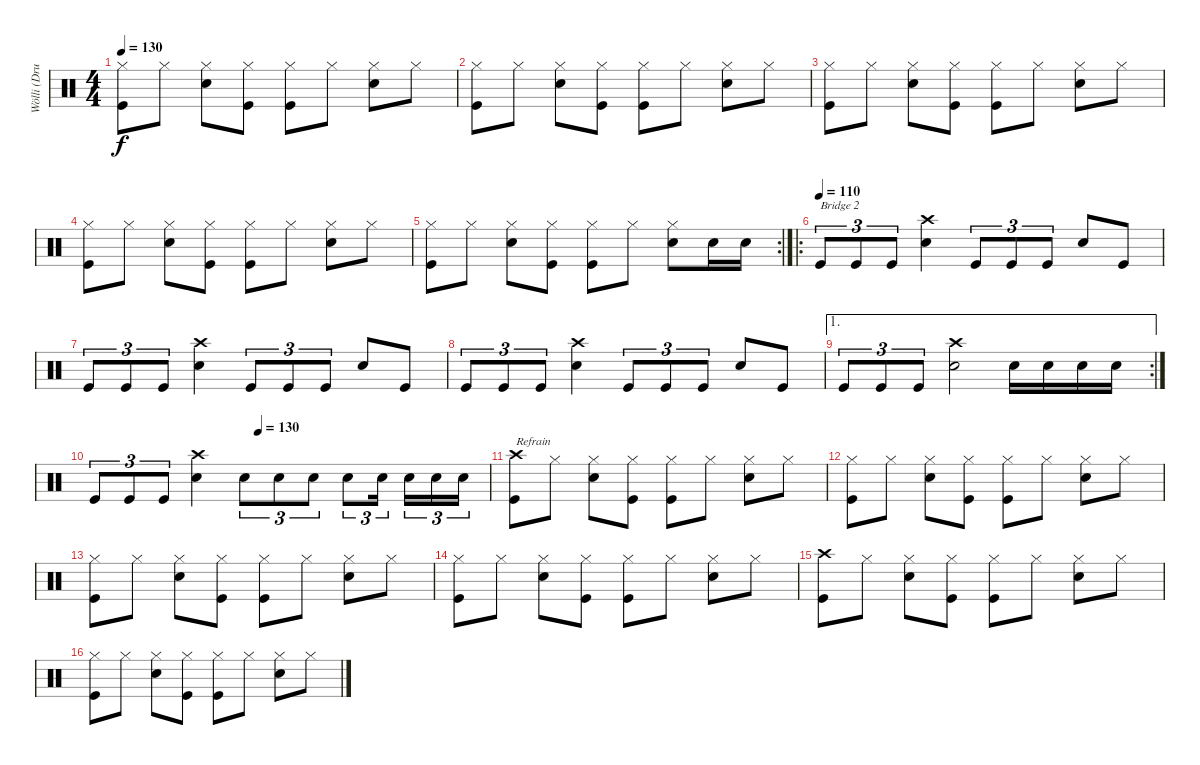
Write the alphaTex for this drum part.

\track ("Wölli (Drums)" "Wölli (Dru") {instrument percussion}
\staff {score}
\articulation defaults
\ts (4 4)
\tempo 130
\clef neutral
\ks c
("Hi-Hat (closed)" "Kick (hit)").8{dy f} "Hi-Hat (closed)".8 ("Hi-Hat (closed)" "Snare (hit) 2").8 ("Hi-Hat (closed)" "Kick (hit)").8 ("Hi-Hat (closed)" "Kick (hit)").8 "Hi-Hat (closed)".8 ("Hi-Hat (closed)" "Snare (hit) 2").8 "Hi-Hat (closed)".8 |
("Hi-Hat (closed)" "Kick (hit)").8 "Hi-Hat (closed)".8 ("Hi-Hat (closed)" "Snare (hit) 2").8 ("Hi-Hat (closed)" "Kick (hit)").8 ("Hi-Hat (closed)" "Kick (hit)").8 "Hi-Hat (closed)".8 ("Hi-Hat (closed)" "Snare (hit) 2").8 "Hi-Hat (closed)".8 |
("Hi-Hat (closed)" "Kick (hit)").8 "Hi-Hat (closed)".8 ("Hi-Hat (closed)" "Snare (hit) 2").8 ("Hi-Hat (closed)" "Kick (hit)").8 ("Hi-Hat (closed)" "Kick (hit)").8 "Hi-Hat (closed)".8 ("Hi-Hat (closed)" "Snare (hit) 2").8 "Hi-Hat (closed)".8 |
("Hi-Hat (closed)" "Kick (hit)").8 "Hi-Hat (closed)".8 ("Hi-Hat (closed)" "Snare (hit) 2").8 ("Hi-Hat (closed)" "Kick (hit)").8 ("Hi-Hat (closed)" "Kick (hit)").8 "Hi-Hat (closed)".8 ("Hi-Hat (closed)" "Snare (hit) 2").8 "Hi-Hat (closed)".8 |
\rc 2
("Hi-Hat (closed)" "Kick (hit)").8 "Hi-Hat (closed)".8 ("Hi-Hat (closed)" "Snare (hit) 2").8 ("Hi-Hat (closed)" "Kick (hit)").8 ("Hi-Hat (closed)" "Kick (hit)").8 "Hi-Hat (closed)".8 ("Hi-Hat (closed)" "Snare (hit) 2").8 "Snare (hit) 2".16 "Snare (hit) 2".16 |
\ro
\tempo (110)
"Kick (hit)".8{tu (3 2) txt "Bridge 2"} "Kick (hit)".8{tu (3 2)} "Kick (hit)".8{tu (3 2)} ("Crash high (hit)" "Snare (hit) 2").4 "Kick (hit)".8{tu (3 2)} "Kick (hit)".8{tu (3 2)} "Kick (hit)".8{tu (3 2)} "Snare (hit) 2".8 "Kick (hit)".8 |
"Kick (hit)".8{tu (3 2)} "Kick (hit)".8{tu (3 2)} "Kick (hit)".8{tu (3 2)} ("Crash high (hit)" "Snare (hit) 2").4 "Kick (hit)".8{tu (3 2)} "Kick (hit)".8{tu (3 2)} "Kick (hit)".8{tu (3 2)} "Snare (hit) 2".8 "Kick (hit)".8 |
"Kick (hit)".8{tu (3 2)} "Kick (hit)".8{tu (3 2)} "Kick (hit)".8{tu (3 2)} ("Crash high (hit)" "Snare (hit) 2").4 "Kick (hit)".8{tu (3 2)} "Kick (hit)".8{tu (3 2)} "Kick (hit)".8{tu (3 2)} "Snare (hit) 2".8 "Kick (hit)".8 |
\ae 1
\rc 2 "Kick (hit)".8{tu (3 2)} "Kick (hit)".8{tu (3 2)} "Kick (hit)".8{tu (3 2)}
("Crash high (hit)" "Snare (hit) 2").2 "Snare (hit) 2".16 "Snare (hit) 2".16 "Snare (hit) 2".16 "Snare (hit) 2".16 |
\tempo (130 0.4166666666666667)
"Kick (hit)".8{tu (3 2)} "Kick (hit)".8{tu (3 2)} "Kick (hit)".8{tu (3 2)} ("Crash high (hit)" "Snare (hit) 2").4 "Snare (hit) 2".8{tu (3 2)} "Snare (hit) 2".8{tu (3 2)} "Snare (hit) 2".8{tu (3 2)} "Snare (hit) 2".8{tu (3 2)} "Snare (hit) 2".16{tu (3 2)} "Snare (hit) 2".16{tu (3 2)} "Snare (hit) 2".16{tu (3 2)} "Snare (hit) 2".16{tu (3 2)} |
("Crash high (hit)" "Kick (hit)").8{txt "Refrain"} "Hi-Hat (closed)".8 ("Hi-Hat (closed)" "Snare (hit) 2").8 ("Hi-Hat (closed)" "Kick (hit)").8 ("Hi-Hat (closed)" "Kick (hit)").8 "Hi-Hat (closed)".8 ("Hi-Hat (closed)" "Snare (hit) 2").8 "Hi-Hat (closed)".8 |
("Hi-Hat (closed)" "Kick (hit)").8 "Hi-Hat (closed)".8 ("Hi-Hat (closed)" "Snare (hit) 2").8 ("Hi-Hat (closed)" "Kick (hit)").8 ("Hi-Hat (closed)" "Kick (hit)").8 "Hi-Hat (closed)".8 ("Hi-Hat (closed)" "Snare (hit) 2").8 "Hi-Hat (closed)".8 |
("Hi-Hat (closed)" "Kick (hit)").8 "Hi-Hat (closed)".8 ("Hi-Hat (closed)" "Snare (hit) 2").8 ("Hi-Hat (closed)" "Kick (hit)").8 ("Hi-Hat (closed)" "Kick (hit)").8 "Hi-Hat (closed)".8 ("Hi-Hat (closed)" "Snare (hit) 2").8 "Hi-Hat (closed)".8 |
("Hi-Hat (closed)" "Kick (hit)").8 "Hi-Hat (closed)".8 ("Hi-Hat (closed)" "Snare (hit) 2").8 ("Hi-Hat (closed)" "Kick (hit)").8 ("Hi-Hat (closed)" "Kick (hit)").8 "Hi-Hat (closed)".8 ("Hi-Hat (closed)" "Snare (hit) 2").8 "Hi-Hat (closed)".8 |
("Crash high (hit)" "Kick (hit)").8 "Hi-Hat (closed)".8 ("Hi-Hat (closed)" "Snare (hit) 2").8 ("Hi-Hat (closed)" "Kick (hit)").8 ("Hi-Hat (closed)" "Kick (hit)").8 "Hi-Hat (closed)".8 ("Hi-Hat (closed)" "Snare (hit) 2").8 "Hi-Hat (closed)".8 |
("Hi-Hat (closed)" "Kick (hit)").8 "Hi-Hat (closed)".8 ("Hi-Hat (closed)" "Snare (hit) 2").8 ("Hi-Hat (closed)" "Kick (hit)").8 ("Hi-Hat (closed)" "Kick (hit)").8 "Hi-Hat (closed)".8 ("Hi-Hat (closed)" "Snare (hit) 2").8 "Hi-Hat (closed)".8
